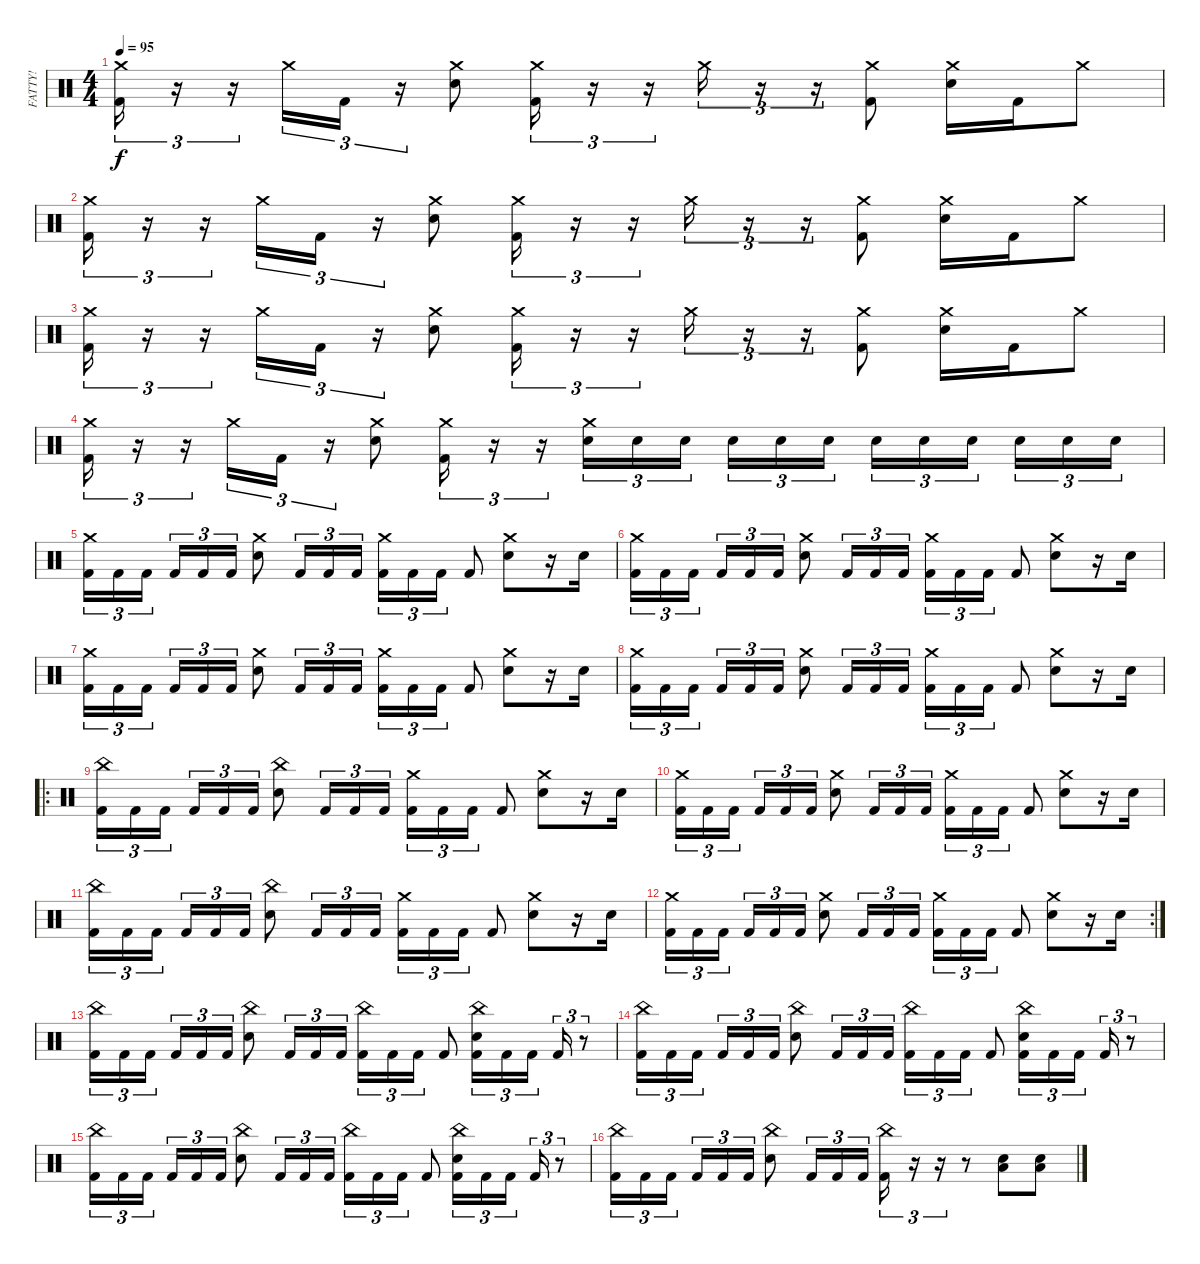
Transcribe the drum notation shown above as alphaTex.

\track ("FATTY!" "FATTY!") {instrument percussion}
\staff {score}
\articulation defaults
\ts (4 4)
\tempo 95
\clef neutral
\ks c
("Crash medium (hit)" "Kick (hit) 2").16{tu (3 2) dy f} r.16{tu (3 2)} r.16{tu (3 2)} "Crash medium (hit)".16{tu (3 2)} "Kick (hit) 2".16{tu (3 2)} r.16{tu (3 2)} ("Crash medium (hit)" "Electric Snare (hit)").8 ("Crash medium (hit)" "Kick (hit) 2").16{tu (3 2)} r.16{tu (3 2)} r.16{tu (3 2)} "Crash medium (hit)".16{tu (3 2)} r.16{tu (3 2)} r.16{tu (3 2)} ("Crash medium (hit)" "Kick (hit) 2").8 ("Crash medium (hit)" "Electric Snare (hit)").16 "Kick (hit) 2".16 "Crash medium (hit)".8 |
("Crash medium (hit)" "Kick (hit) 2").16{tu (3 2)} r.16{tu (3 2)} r.16{tu (3 2)} "Crash medium (hit)".16{tu (3 2)} "Kick (hit) 2".16{tu (3 2)} r.16{tu (3 2)} ("Crash medium (hit)" "Electric Snare (hit)").8 ("Crash medium (hit)" "Kick (hit) 2").16{tu (3 2)} r.16{tu (3 2)} r.16{tu (3 2)} "Crash medium (hit)".16{tu (3 2)} r.16{tu (3 2)} r.16{tu (3 2)} ("Crash medium (hit)" "Kick (hit) 2").8 ("Crash medium (hit)" "Electric Snare (hit)").16 "Kick (hit) 2".16 "Crash medium (hit)".8 |
("Crash medium (hit)" "Kick (hit) 2").16{tu (3 2)} r.16{tu (3 2)} r.16{tu (3 2)} "Crash medium (hit)".16{tu (3 2)} "Kick (hit) 2".16{tu (3 2)} r.16{tu (3 2)} ("Crash medium (hit)" "Electric Snare (hit)").8 ("Crash medium (hit)" "Kick (hit) 2").16{tu (3 2)} r.16{tu (3 2)} r.16{tu (3 2)} "Crash medium (hit)".16{tu (3 2)} r.16{tu (3 2)} r.16{tu (3 2)} ("Crash medium (hit)" "Kick (hit) 2").8 ("Crash medium (hit)" "Electric Snare (hit)").16 "Kick (hit) 2".16 "Crash medium (hit)".8 |
("Crash medium (hit)" "Kick (hit) 2").16{tu (3 2)} r.16{tu (3 2)} r.16{tu (3 2)} "Crash medium (hit)".16{tu (3 2)} "Kick (hit) 2".16{tu (3 2)} r.16{tu (3 2)} ("Crash medium (hit)" "Electric Snare (hit)").8 ("Crash medium (hit)" "Kick (hit) 2").16{tu (3 2)} r.16{tu (3 2)} r.16{tu (3 2)} ("Crash medium (hit)" "Electric Snare (hit)").16{tu (3 2) volume 7} "Electric Snare (hit)".16{tu (3 2) volume 8} "Electric Snare (hit)".16{tu (3 2) volume 9 beam splitsecondary} "Electric Snare (hit)".16{tu (3 2) volume 10} "Electric Snare (hit)".16{tu (3 2) volume 11} "Electric Snare (hit)".16{tu (3 2) volume 12} "Electric Snare (hit)".16{tu (3 2) volume 13} "Electric Snare (hit)".16{tu (3 2)} "Electric Snare (hit)".16{tu (3 2) beam splitsecondary} "Electric Snare (hit)".16{tu (3 2)} "Electric Snare (hit)".16{tu (3 2)} "Electric Snare (hit)".16{tu (3 2)} |
("Crash medium (hit)" "Kick (hit) 2").16{tu (3 2)} "Kick (hit) 2".16{tu (3 2)} "Kick (hit) 2".16{tu (3 2) beam splitsecondary} "Kick (hit) 2".16{tu (3 2)} "Kick (hit) 2".16{tu (3 2)} "Kick (hit) 2".16{tu (3 2)} ("Crash medium (hit)" "Electric Snare (hit)").8 "Kick (hit) 2".16{tu (3 2)} "Kick (hit) 2".16{tu (3 2)} "Kick (hit) 2".16{tu (3 2)} ("Crash medium (hit)" "Kick (hit) 2").16{tu (3 2)} "Kick (hit) 2".16{tu (3 2)} "Kick (hit) 2".16{tu (3 2)} "Kick (hit) 2".8 ("Crash medium (hit)" "Electric Snare (hit)").8 r.16 "Electric Snare (hit)".16 |
("Crash medium (hit)" "Kick (hit) 2").16{tu (3 2)} "Kick (hit) 2".16{tu (3 2)} "Kick (hit) 2".16{tu (3 2) beam splitsecondary} "Kick (hit) 2".16{tu (3 2)} "Kick (hit) 2".16{tu (3 2)} "Kick (hit) 2".16{tu (3 2)} ("Crash medium (hit)" "Electric Snare (hit)").8 "Kick (hit) 2".16{tu (3 2)} "Kick (hit) 2".16{tu (3 2)} "Kick (hit) 2".16{tu (3 2)} ("Crash medium (hit)" "Kick (hit) 2").16{tu (3 2)} "Kick (hit) 2".16{tu (3 2)} "Kick (hit) 2".16{tu (3 2)} "Kick (hit) 2".8 ("Crash medium (hit)" "Electric Snare (hit)").8 r.16 "Electric Snare (hit)".16 |
("Crash medium (hit)" "Kick (hit) 2").16{tu (3 2)} "Kick (hit) 2".16{tu (3 2)} "Kick (hit) 2".16{tu (3 2) beam splitsecondary} "Kick (hit) 2".16{tu (3 2)} "Kick (hit) 2".16{tu (3 2)} "Kick (hit) 2".16{tu (3 2)} ("Crash medium (hit)" "Electric Snare (hit)").8 "Kick (hit) 2".16{tu (3 2)} "Kick (hit) 2".16{tu (3 2)} "Kick (hit) 2".16{tu (3 2)} ("Crash medium (hit)" "Kick (hit) 2").16{tu (3 2)} "Kick (hit) 2".16{tu (3 2)} "Kick (hit) 2".16{tu (3 2)} "Kick (hit) 2".8 ("Crash medium (hit)" "Electric Snare (hit)").8 r.16 "Electric Snare (hit)".16 |
("Crash medium (hit)" "Kick (hit) 2").16{tu (3 2)} "Kick (hit) 2".16{tu (3 2)} "Kick (hit) 2".16{tu (3 2) beam splitsecondary} "Kick (hit) 2".16{tu (3 2)} "Kick (hit) 2".16{tu (3 2)} "Kick (hit) 2".16{tu (3 2)} ("Crash medium (hit)" "Electric Snare (hit)").8 "Kick (hit) 2".16{tu (3 2)} "Kick (hit) 2".16{tu (3 2)} "Kick (hit) 2".16{tu (3 2)} ("Crash medium (hit)" "Kick (hit) 2").16{tu (3 2)} "Kick (hit) 2".16{tu (3 2)} "Kick (hit) 2".16{tu (3 2)} "Kick (hit) 2".8 ("Crash medium (hit)" "Electric Snare (hit)").8 r.16 "Electric Snare (hit)".16 |
\ro
("China (hit)" "Kick (hit) 2").16{tu (3 2)} "Kick (hit) 2".16{tu (3 2)} "Kick (hit) 2".16{tu (3 2) beam splitsecondary} "Kick (hit) 2".16{tu (3 2)} "Kick (hit) 2".16{tu (3 2)} "Kick (hit) 2".16{tu (3 2)} ("China (hit)" "Electric Snare (hit)").8 "Kick (hit) 2".16{tu (3 2)} "Kick (hit) 2".16{tu (3 2)} "Kick (hit) 2".16{tu (3 2)} ("Crash medium (hit)" "Kick (hit) 2").16{tu (3 2)} "Kick (hit) 2".16{tu (3 2)} "Kick (hit) 2".16{tu (3 2)} "Kick (hit) 2".8 ("Crash medium (hit)" "Electric Snare (hit)").8 r.16 "Electric Snare (hit)".16 |
("Crash medium (hit)" "Kick (hit) 2").16{tu (3 2)} "Kick (hit) 2".16{tu (3 2)} "Kick (hit) 2".16{tu (3 2) beam splitsecondary} "Kick (hit) 2".16{tu (3 2)} "Kick (hit) 2".16{tu (3 2)} "Kick (hit) 2".16{tu (3 2)} ("Crash medium (hit)" "Electric Snare (hit)").8 "Kick (hit) 2".16{tu (3 2)} "Kick (hit) 2".16{tu (3 2)} "Kick (hit) 2".16{tu (3 2)} ("Crash medium (hit)" "Kick (hit) 2").16{tu (3 2)} "Kick (hit) 2".16{tu (3 2)} "Kick (hit) 2".16{tu (3 2)} "Kick (hit) 2".8 ("Crash medium (hit)" "Electric Snare (hit)").8 r.16 "Electric Snare (hit)".16 |
("China (hit)" "Kick (hit) 2").16{tu (3 2)} "Kick (hit) 2".16{tu (3 2)} "Kick (hit) 2".16{tu (3 2) beam splitsecondary} "Kick (hit) 2".16{tu (3 2)} "Kick (hit) 2".16{tu (3 2)} "Kick (hit) 2".16{tu (3 2)} ("China (hit)" "Electric Snare (hit)").8 "Kick (hit) 2".16{tu (3 2)} "Kick (hit) 2".16{tu (3 2)} "Kick (hit) 2".16{tu (3 2)} ("Crash medium (hit)" "Kick (hit) 2").16{tu (3 2)} "Kick (hit) 2".16{tu (3 2)} "Kick (hit) 2".16{tu (3 2)} "Kick (hit) 2".8 ("Crash medium (hit)" "Electric Snare (hit)").8 r.16 "Electric Snare (hit)".16 |
\rc 2
("Crash medium (hit)" "Kick (hit) 2").16{tu (3 2)} "Kick (hit) 2".16{tu (3 2)} "Kick (hit) 2".16{tu (3 2) beam splitsecondary} "Kick (hit) 2".16{tu (3 2)} "Kick (hit) 2".16{tu (3 2)} "Kick (hit) 2".16{tu (3 2)} ("Crash medium (hit)" "Electric Snare (hit)").8 "Kick (hit) 2".16{tu (3 2)} "Kick (hit) 2".16{tu (3 2)} "Kick (hit) 2".16{tu (3 2)} ("Crash medium (hit)" "Kick (hit) 2").16{tu (3 2)} "Kick (hit) 2".16{tu (3 2)} "Kick (hit) 2".16{tu (3 2)} "Kick (hit) 2".8 ("Crash medium (hit)" "Electric Snare (hit)").8 r.16 "Electric Snare (hit)".16 |
("China (hit)" "Kick (hit) 2").16{tu (3 2)} "Kick (hit) 2".16{tu (3 2)} "Kick (hit) 2".16{tu (3 2) beam splitsecondary} "Kick (hit) 2".16{tu (3 2)} "Kick (hit) 2".16{tu (3 2)} "Kick (hit) 2".16{tu (3 2)} ("China (hit)" "Electric Snare (hit)").8 "Kick (hit) 2".16{tu (3 2)} "Kick (hit) 2".16{tu (3 2)} "Kick (hit) 2".16{tu (3 2)} ("China (hit)" "Kick (hit) 2").16{tu (3 2)} "Kick (hit) 2".16{tu (3 2)} "Kick (hit) 2".16{tu (3 2)} "Kick (hit) 2".8 ("China (hit)" "Electric Snare (hit)" "Kick (hit) 2").16{tu (3 2)} "Kick (hit) 2".16{tu (3 2)} "Kick (hit) 2".16{tu (3 2) beam splitsecondary} "Kick (hit) 2".16{tu (3 2)} r.8{tu (3 2)} |
("China (hit)" "Kick (hit) 2").16{tu (3 2)} "Kick (hit) 2".16{tu (3 2)} "Kick (hit) 2".16{tu (3 2) beam splitsecondary} "Kick (hit) 2".16{tu (3 2)} "Kick (hit) 2".16{tu (3 2)} "Kick (hit) 2".16{tu (3 2)} ("China (hit)" "Electric Snare (hit)").8 "Kick (hit) 2".16{tu (3 2)} "Kick (hit) 2".16{tu (3 2)} "Kick (hit) 2".16{tu (3 2)} ("China (hit)" "Kick (hit) 2").16{tu (3 2)} "Kick (hit) 2".16{tu (3 2)} "Kick (hit) 2".16{tu (3 2)} "Kick (hit) 2".8 ("China (hit)" "Electric Snare (hit)" "Kick (hit) 2").16{tu (3 2)} "Kick (hit) 2".16{tu (3 2)} "Kick (hit) 2".16{tu (3 2) beam splitsecondary} "Kick (hit) 2".16{tu (3 2)} r.8{tu (3 2)} |
("China (hit)" "Kick (hit) 2").16{tu (3 2)} "Kick (hit) 2".16{tu (3 2)} "Kick (hit) 2".16{tu (3 2) beam splitsecondary} "Kick (hit) 2".16{tu (3 2)} "Kick (hit) 2".16{tu (3 2)} "Kick (hit) 2".16{tu (3 2)} ("China (hit)" "Electric Snare (hit)").8 "Kick (hit) 2".16{tu (3 2)} "Kick (hit) 2".16{tu (3 2)} "Kick (hit) 2".16{tu (3 2)} ("China (hit)" "Kick (hit) 2").16{tu (3 2)} "Kick (hit) 2".16{tu (3 2)} "Kick (hit) 2".16{tu (3 2)} "Kick (hit) 2".8 ("China (hit)" "Electric Snare (hit)" "Kick (hit) 2").16{tu (3 2)} "Kick (hit) 2".16{tu (3 2)} "Kick (hit) 2".16{tu (3 2) beam splitsecondary} "Kick (hit) 2".16{tu (3 2)} r.8{tu (3 2)} |
("China (hit)" "Kick (hit) 2").16{tu (3 2)} "Kick (hit) 2".16{tu (3 2)} "Kick (hit) 2".16{tu (3 2) beam splitsecondary} "Kick (hit) 2".16{tu (3 2)} "Kick (hit) 2".16{tu (3 2)} "Kick (hit) 2".16{tu (3 2)} ("China (hit)" "Electric Snare (hit)").8 "Kick (hit) 2".16{tu (3 2)} "Kick (hit) 2".16{tu (3 2)} "Kick (hit) 2".16{tu (3 2)} ("China (hit)" "Kick (hit) 2").16{tu (3 2)} r.16{tu (3 2)} r.16{tu (3 2)} r.8 ("Low Tom (hit)" "Electric Snare (hit)").8 ("Low Tom (hit)" "Electric Snare (hit)").8
